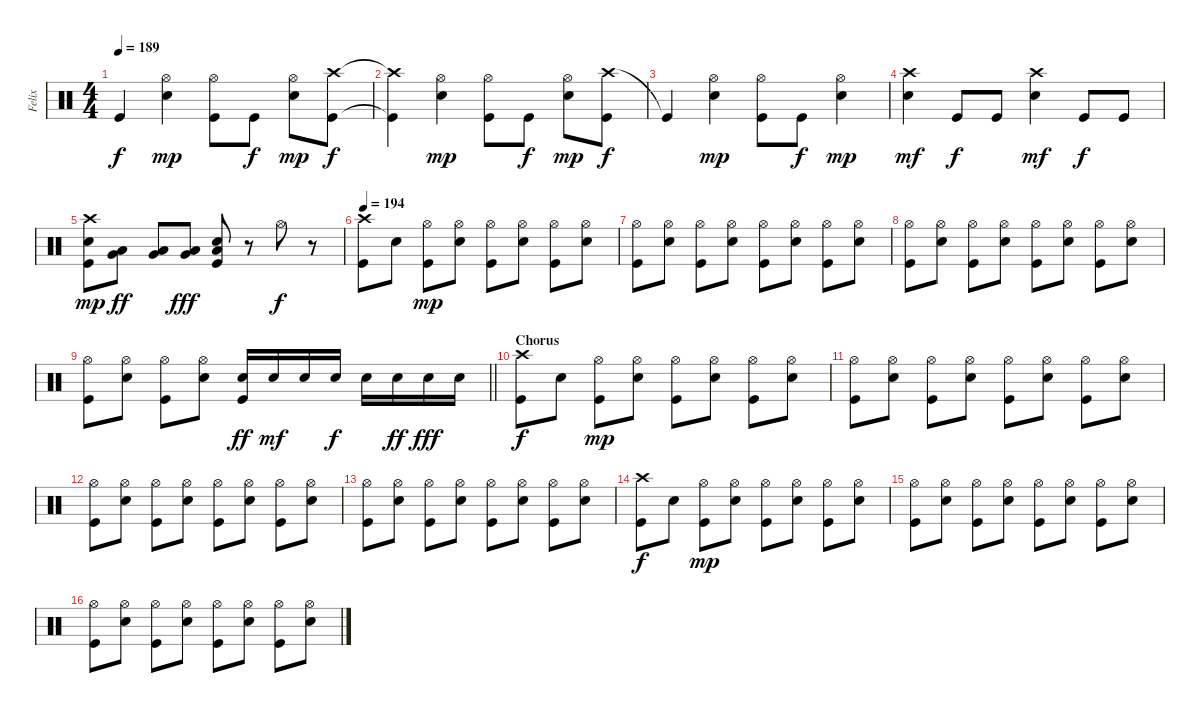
\track ("Felix" "Felix") {instrument percussion}
\staff {score}
\articulation defaults
\ts (4 4)
\tempo 189
\clef neutral
\ks c "Kick (hit)"{t}.4{dy f}
("Hi-Hat (open)" "Snare (hit) 2").4{dy mp} ("Hi-Hat (open)" "Kick (hit)").8 "Kick (hit)".8{dy f} ("Hi-Hat (open)" "Snare (hit) 2").8{dy mp} ("Crash high (hit)" "Kick (hit)").8{dy f} |
("Crash high (hit)"{t} "Kick (hit)"{t}).4 ("Hi-Hat (open)" "Snare (hit) 2").4{dy mp} ("Hi-Hat (open)" "Kick (hit)").8 "Kick (hit)".8{dy f} ("Hi-Hat (open)" "Snare (hit) 2").8{dy mp} ("Crash high (hit)" "Kick (hit)").8{dy f} |
"Kick (hit)"{t}.4 ("Hi-Hat (open)" "Snare (hit) 2").4{dy mp} ("Hi-Hat (open)" "Kick (hit)").8 "Kick (hit)".8{dy f} ("Hi-Hat (open)" "Snare (hit) 2").4{dy mp} |
("Crash high (hit)" "Snare (hit) 2").4{dy mf} "Kick (hit)".8{dy f} "Kick (hit)".8 ("Crash high (hit)" "Snare (hit) 2").4{dy mf} "Kick (hit)".8{dy f} "Kick (hit)".8 |
("Crash high (hit)" "Snare (hit) 2" "Kick (hit)").8{dy mp} ("Low Tom (hit)" "Very Low Tom (hit)").8{dy ff} ("Low Floor Tom (hit)" "Very Low Tom (hit)").8 ("Low Floor Tom (hit)" "Very Low Tom (hit)").8{dy fff} ("Low Tom (hit)" "Snare (hit) 2" "Kick (hit)").8 r.8 "Hi-Hat (open)".8{dy f} r.8 |
\tempo 194
("Crash high (hit)" "Kick (hit)").8 "Snare (hit) 2".8 ("Hi-Hat (open)" "Kick (hit)").8{dy mp} ("Hi-Hat (open)" "Snare (hit) 2").8 ("Hi-Hat (open)" "Kick (hit)").8 ("Hi-Hat (open)" "Snare (hit) 2").8 ("Hi-Hat (open)" "Kick (hit)").8 ("Hi-Hat (open)" "Snare (hit) 2").8 |
("Hi-Hat (open)" "Kick (hit)").8 ("Hi-Hat (open)" "Snare (hit) 2").8 ("Hi-Hat (open)" "Kick (hit)").8 ("Hi-Hat (open)" "Snare (hit) 2").8 ("Hi-Hat (open)" "Kick (hit)").8 ("Hi-Hat (open)" "Snare (hit) 2").8 ("Hi-Hat (open)" "Kick (hit)").8 ("Hi-Hat (open)" "Snare (hit) 2").8 |
("Hi-Hat (open)" "Kick (hit)").8 ("Hi-Hat (open)" "Snare (hit) 2").8 ("Hi-Hat (open)" "Kick (hit)").8 ("Hi-Hat (open)" "Snare (hit) 2").8 ("Hi-Hat (open)" "Kick (hit)").8 ("Hi-Hat (open)" "Snare (hit) 2").8 ("Hi-Hat (open)" "Kick (hit)").8 ("Hi-Hat (open)" "Snare (hit) 2").8 |
\barLineRight lightlight
("Hi-Hat (open)" "Kick (hit)").8 ("Hi-Hat (open)" "Snare (hit) 2").8 ("Hi-Hat (open)" "Kick (hit)").8 ("Hi-Hat (open)" "Snare (hit) 2").8 ("Snare (hit) 2" "Kick (hit)").16{dy ff} "Snare (hit) 2".16{dy mf} "Snare (hit) 2".16 "Snare (hit) 2".16{dy f} "Snare (hit) 2".16 "Snare (hit) 2".16{dy ff} "Snare (hit) 2".16{dy fff} "Snare (hit) 2".16 |
\section ("" "Chorus")
("Crash high (hit)" "Kick (hit)").8{dy f} "Snare (hit) 2".8 ("Hi-Hat (open)" "Kick (hit)").8{dy mp} ("Hi-Hat (open)" "Snare (hit) 2").8 ("Hi-Hat (open)" "Kick (hit)").8 ("Hi-Hat (open)" "Snare (hit) 2").8 ("Hi-Hat (open)" "Kick (hit)").8 ("Hi-Hat (open)" "Snare (hit) 2").8 |
("Hi-Hat (open)" "Kick (hit)").8 ("Hi-Hat (open)" "Snare (hit) 2").8 ("Hi-Hat (open)" "Kick (hit)").8 ("Hi-Hat (open)" "Snare (hit) 2").8 ("Hi-Hat (open)" "Kick (hit)").8 ("Hi-Hat (open)" "Snare (hit) 2").8 ("Hi-Hat (open)" "Kick (hit)").8 ("Hi-Hat (open)" "Snare (hit) 2").8 |
("Hi-Hat (open)" "Kick (hit)").8 ("Hi-Hat (open)" "Snare (hit) 2").8 ("Hi-Hat (open)" "Kick (hit)").8 ("Hi-Hat (open)" "Snare (hit) 2").8 ("Hi-Hat (open)" "Kick (hit)").8 ("Hi-Hat (open)" "Snare (hit) 2").8 ("Hi-Hat (open)" "Kick (hit)").8 ("Hi-Hat (open)" "Snare (hit) 2").8 |
("Hi-Hat (open)" "Kick (hit)").8 ("Hi-Hat (open)" "Snare (hit) 2").8 ("Hi-Hat (open)" "Kick (hit)").8 ("Hi-Hat (open)" "Snare (hit) 2").8 ("Hi-Hat (open)" "Kick (hit)").8 ("Hi-Hat (open)" "Snare (hit) 2").8 ("Hi-Hat (open)" "Kick (hit)").8 ("Hi-Hat (open)" "Snare (hit) 2").8 |
("Crash high (hit)" "Kick (hit)").8{dy f} "Snare (hit) 2".8 ("Hi-Hat (open)" "Kick (hit)").8{dy mp} ("Hi-Hat (open)" "Snare (hit) 2").8 ("Hi-Hat (open)" "Kick (hit)").8 ("Hi-Hat (open)" "Snare (hit) 2").8 ("Hi-Hat (open)" "Kick (hit)").8 ("Hi-Hat (open)" "Snare (hit) 2").8 |
("Hi-Hat (open)" "Kick (hit)").8 ("Hi-Hat (open)" "Snare (hit) 2").8 ("Hi-Hat (open)" "Kick (hit)").8 ("Hi-Hat (open)" "Snare (hit) 2").8 ("Hi-Hat (open)" "Kick (hit)").8 ("Hi-Hat (open)" "Snare (hit) 2").8 ("Hi-Hat (open)" "Kick (hit)").8 ("Hi-Hat (open)" "Snare (hit) 2").8 |
("Hi-Hat (open)" "Kick (hit)").8 ("Hi-Hat (open)" "Snare (hit) 2").8 ("Hi-Hat (open)" "Kick (hit)").8 ("Hi-Hat (open)" "Snare (hit) 2").8 ("Hi-Hat (open)" "Kick (hit)").8 ("Hi-Hat (open)" "Snare (hit) 2").8 ("Hi-Hat (open)" "Kick (hit)").8 ("Hi-Hat (open)" "Snare (hit) 2").8
